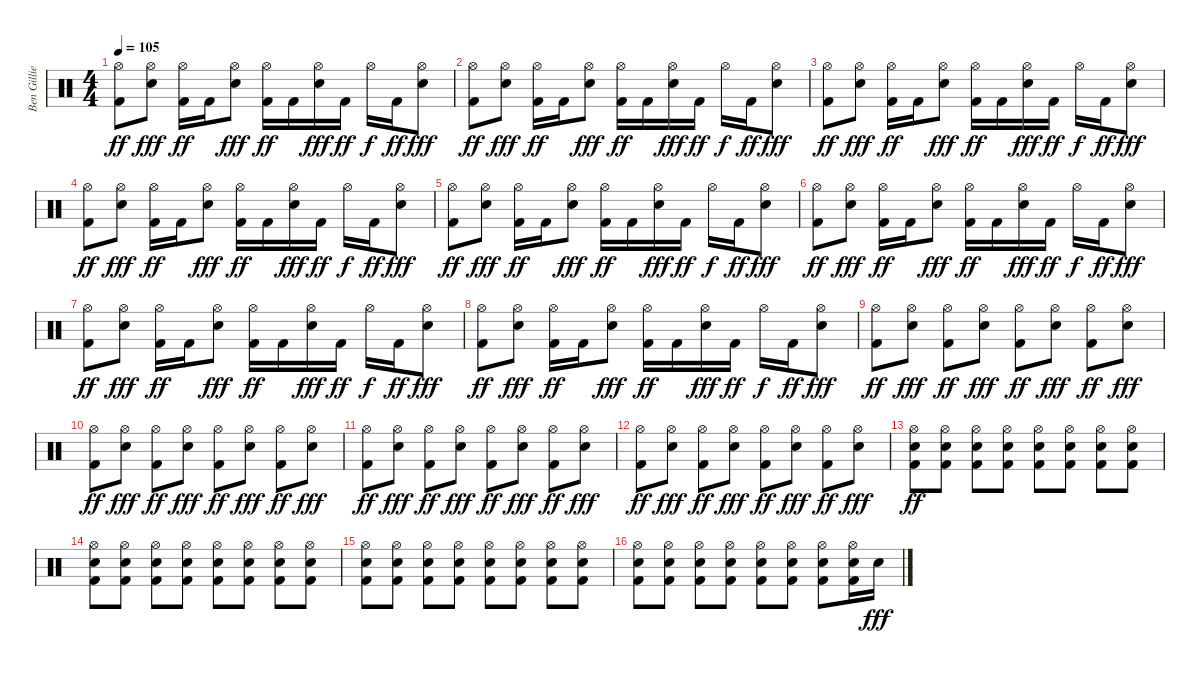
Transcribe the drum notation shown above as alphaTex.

\track ("Ben Gillies" "Ben Gillie") {instrument percussion}
\staff {score}
\articulation defaults
\ts (4 4)
\tempo 105
\clef neutral
\ks c
("Hi-Hat (open)" "Kick (hit) 2").8{dy ff} ("Hi-Hat (open)" "Electric Snare (hit)").8{dy fff} ("Hi-Hat (open)" "Kick (hit) 2").16{dy ff} "Kick (hit) 2".16 ("Hi-Hat (open)" "Electric Snare (hit)").8{dy fff} ("Hi-Hat (open)" "Kick (hit) 2").16{dy ff} "Kick (hit) 2".16 ("Hi-Hat (open)" "Electric Snare (hit)").16{dy fff} "Kick (hit) 2".16{dy ff} "Hi-Hat (open)".16{dy f} "Kick (hit) 2".16{dy ff} ("Hi-Hat (open)" "Electric Snare (hit)").8{dy fff} |
("Hi-Hat (open)" "Kick (hit) 2").8{dy ff} ("Hi-Hat (open)" "Electric Snare (hit)").8{dy fff} ("Hi-Hat (open)" "Kick (hit) 2").16{dy ff} "Kick (hit) 2".16 ("Hi-Hat (open)" "Electric Snare (hit)").8{dy fff} ("Hi-Hat (open)" "Kick (hit) 2").16{dy ff} "Kick (hit) 2".16 ("Hi-Hat (open)" "Electric Snare (hit)").16{dy fff} "Kick (hit) 2".16{dy ff} "Hi-Hat (open)".16{dy f} "Kick (hit) 2".16{dy ff} ("Hi-Hat (open)" "Electric Snare (hit)").8{dy fff} |
("Hi-Hat (open)" "Kick (hit) 2").8{dy ff} ("Hi-Hat (open)" "Electric Snare (hit)").8{dy fff} ("Hi-Hat (open)" "Kick (hit) 2").16{dy ff} "Kick (hit) 2".16 ("Hi-Hat (open)" "Electric Snare (hit)").8{dy fff} ("Hi-Hat (open)" "Kick (hit) 2").16{dy ff} "Kick (hit) 2".16 ("Hi-Hat (open)" "Electric Snare (hit)").16{dy fff} "Kick (hit) 2".16{dy ff} "Hi-Hat (open)".16{dy f} "Kick (hit) 2".16{dy ff} ("Hi-Hat (open)" "Electric Snare (hit)").8{dy fff} |
("Hi-Hat (open)" "Kick (hit) 2").8{dy ff} ("Hi-Hat (open)" "Electric Snare (hit)").8{dy fff} ("Hi-Hat (open)" "Kick (hit) 2").16{dy ff} "Kick (hit) 2".16 ("Hi-Hat (open)" "Electric Snare (hit)").8{dy fff} ("Hi-Hat (open)" "Kick (hit) 2").16{dy ff} "Kick (hit) 2".16 ("Hi-Hat (open)" "Electric Snare (hit)").16{dy fff} "Kick (hit) 2".16{dy ff} "Hi-Hat (open)".16{dy f} "Kick (hit) 2".16{dy ff} ("Hi-Hat (open)" "Electric Snare (hit)").8{dy fff} |
("Hi-Hat (open)" "Kick (hit) 2").8{dy ff} ("Hi-Hat (open)" "Electric Snare (hit)").8{dy fff} ("Hi-Hat (open)" "Kick (hit) 2").16{dy ff} "Kick (hit) 2".16 ("Hi-Hat (open)" "Electric Snare (hit)").8{dy fff} ("Hi-Hat (open)" "Kick (hit) 2").16{dy ff} "Kick (hit) 2".16 ("Hi-Hat (open)" "Electric Snare (hit)").16{dy fff} "Kick (hit) 2".16{dy ff} "Hi-Hat (open)".16{dy f} "Kick (hit) 2".16{dy ff} ("Hi-Hat (open)" "Electric Snare (hit)").8{dy fff} |
("Hi-Hat (open)" "Kick (hit) 2").8{dy ff} ("Hi-Hat (open)" "Electric Snare (hit)").8{dy fff} ("Hi-Hat (open)" "Kick (hit) 2").16{dy ff} "Kick (hit) 2".16 ("Hi-Hat (open)" "Electric Snare (hit)").8{dy fff} ("Hi-Hat (open)" "Kick (hit) 2").16{dy ff} "Kick (hit) 2".16 ("Hi-Hat (open)" "Electric Snare (hit)").16{dy fff} "Kick (hit) 2".16{dy ff} "Hi-Hat (open)".16{dy f} "Kick (hit) 2".16{dy ff} ("Hi-Hat (open)" "Electric Snare (hit)").8{dy fff} |
("Hi-Hat (open)" "Kick (hit) 2").8{dy ff} ("Hi-Hat (open)" "Electric Snare (hit)").8{dy fff} ("Hi-Hat (open)" "Kick (hit) 2").16{dy ff} "Kick (hit) 2".16 ("Hi-Hat (open)" "Electric Snare (hit)").8{dy fff} ("Hi-Hat (open)" "Kick (hit) 2").16{dy ff} "Kick (hit) 2".16 ("Hi-Hat (open)" "Electric Snare (hit)").16{dy fff} "Kick (hit) 2".16{dy ff} "Hi-Hat (open)".16{dy f} "Kick (hit) 2".16{dy ff} ("Hi-Hat (open)" "Electric Snare (hit)").8{dy fff} |
("Hi-Hat (open)" "Kick (hit) 2").8{dy ff} ("Hi-Hat (open)" "Electric Snare (hit)").8{dy fff} ("Hi-Hat (open)" "Kick (hit) 2").16{dy ff} "Kick (hit) 2".16 ("Hi-Hat (open)" "Electric Snare (hit)").8{dy fff} ("Hi-Hat (open)" "Kick (hit) 2").16{dy ff} "Kick (hit) 2".16 ("Hi-Hat (open)" "Electric Snare (hit)").16{dy fff} "Kick (hit) 2".16{dy ff} "Hi-Hat (open)".16{dy f} "Kick (hit) 2".16{dy ff} ("Hi-Hat (open)" "Electric Snare (hit)").8{dy fff} |
("Hi-Hat (open)" "Kick (hit) 2").8{dy ff} ("Hi-Hat (open)" "Electric Snare (hit)").8{dy fff} ("Hi-Hat (open)" "Kick (hit) 2").8{dy ff} ("Hi-Hat (open)" "Electric Snare (hit)").8{dy fff} ("Hi-Hat (open)" "Kick (hit) 2").8{dy ff} ("Hi-Hat (open)" "Electric Snare (hit)").8{dy fff} ("Hi-Hat (open)" "Kick (hit) 2").8{dy ff} ("Hi-Hat (open)" "Electric Snare (hit)").8{dy fff} |
("Hi-Hat (open)" "Kick (hit) 2").8{dy ff} ("Hi-Hat (open)" "Electric Snare (hit)").8{dy fff} ("Hi-Hat (open)" "Kick (hit) 2").8{dy ff} ("Hi-Hat (open)" "Electric Snare (hit)").8{dy fff} ("Hi-Hat (open)" "Kick (hit) 2").8{dy ff} ("Hi-Hat (open)" "Electric Snare (hit)").8{dy fff} ("Hi-Hat (open)" "Kick (hit) 2").8{dy ff} ("Hi-Hat (open)" "Electric Snare (hit)").8{dy fff} |
("Hi-Hat (open)" "Kick (hit) 2").8{dy ff} ("Hi-Hat (open)" "Electric Snare (hit)").8{dy fff} ("Hi-Hat (open)" "Kick (hit) 2").8{dy ff} ("Hi-Hat (open)" "Electric Snare (hit)").8{dy fff} ("Hi-Hat (open)" "Kick (hit) 2").8{dy ff} ("Hi-Hat (open)" "Electric Snare (hit)").8{dy fff} ("Hi-Hat (open)" "Kick (hit) 2").8{dy ff} ("Hi-Hat (open)" "Electric Snare (hit)").8{dy fff} |
("Hi-Hat (open)" "Kick (hit) 2").8{dy ff} ("Hi-Hat (open)" "Electric Snare (hit)").8{dy fff} ("Hi-Hat (open)" "Kick (hit) 2").8{dy ff} ("Hi-Hat (open)" "Electric Snare (hit)").8{dy fff} ("Hi-Hat (open)" "Kick (hit) 2").8{dy ff} ("Hi-Hat (open)" "Electric Snare (hit)").8{dy fff} ("Hi-Hat (open)" "Kick (hit) 2").8{dy ff} ("Hi-Hat (open)" "Electric Snare (hit)").8{dy fff} |
("Hi-Hat (open)" "Electric Snare (hit)" "Kick (hit) 2").8{dy ff} ("Hi-Hat (open)" "Electric Snare (hit)" "Kick (hit) 2").8 ("Hi-Hat (open)" "Electric Snare (hit)" "Kick (hit) 2").8 ("Hi-Hat (open)" "Electric Snare (hit)" "Kick (hit) 2").8 ("Hi-Hat (open)" "Electric Snare (hit)" "Kick (hit) 2").8 ("Hi-Hat (open)" "Electric Snare (hit)" "Kick (hit) 2").8 ("Hi-Hat (open)" "Electric Snare (hit)" "Kick (hit) 2").8 ("Hi-Hat (open)" "Electric Snare (hit)" "Kick (hit) 2").8 |
("Hi-Hat (open)" "Electric Snare (hit)" "Kick (hit) 2").8 ("Hi-Hat (open)" "Electric Snare (hit)" "Kick (hit) 2").8 ("Hi-Hat (open)" "Electric Snare (hit)" "Kick (hit) 2").8 ("Hi-Hat (open)" "Electric Snare (hit)" "Kick (hit) 2").8 ("Hi-Hat (open)" "Electric Snare (hit)" "Kick (hit) 2").8 ("Hi-Hat (open)" "Electric Snare (hit)" "Kick (hit) 2").8 ("Hi-Hat (open)" "Electric Snare (hit)" "Kick (hit) 2").8 ("Hi-Hat (open)" "Electric Snare (hit)" "Kick (hit) 2").8 |
("Hi-Hat (open)" "Electric Snare (hit)" "Kick (hit) 2").8 ("Hi-Hat (open)" "Electric Snare (hit)" "Kick (hit) 2").8 ("Hi-Hat (open)" "Electric Snare (hit)" "Kick (hit) 2").8 ("Hi-Hat (open)" "Electric Snare (hit)" "Kick (hit) 2").8 ("Hi-Hat (open)" "Electric Snare (hit)" "Kick (hit) 2").8 ("Hi-Hat (open)" "Electric Snare (hit)" "Kick (hit) 2").8 ("Hi-Hat (open)" "Electric Snare (hit)" "Kick (hit) 2").8 ("Hi-Hat (open)" "Electric Snare (hit)" "Kick (hit) 2").8 |
("Hi-Hat (open)" "Electric Snare (hit)" "Kick (hit) 2").8 ("Hi-Hat (open)" "Electric Snare (hit)" "Kick (hit) 2").8 ("Hi-Hat (open)" "Electric Snare (hit)" "Kick (hit) 2").8 ("Hi-Hat (open)" "Electric Snare (hit)" "Kick (hit) 2").8 ("Hi-Hat (open)" "Electric Snare (hit)" "Kick (hit) 2").8 ("Hi-Hat (open)" "Electric Snare (hit)" "Kick (hit) 2").8 ("Hi-Hat (open)" "Electric Snare (hit)" "Kick (hit) 2").8 ("Hi-Hat (open)" "Electric Snare (hit)" "Kick (hit) 2").16 "Electric Snare (hit)".16{dy fff}
